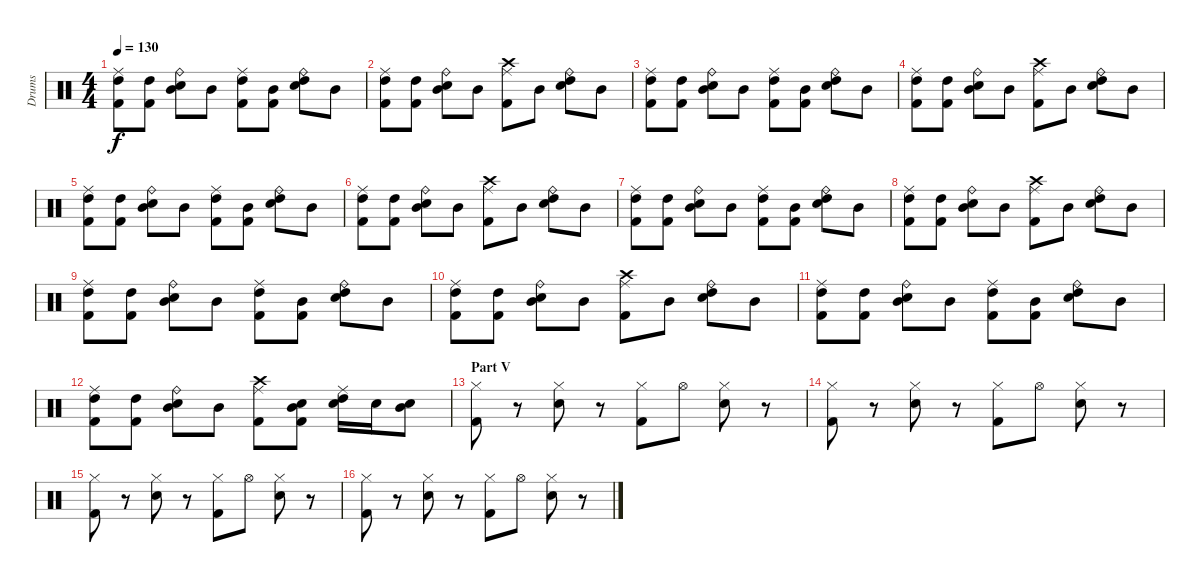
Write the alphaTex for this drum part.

\track ("Drums" "Drums") {instrument percussion}
\staff {score}
\articulation defaults
\ts (4 4)
\tempo 130
\clef neutral
\ks c
("Kick (hit) 2" "High Tom (hit)" "Ride (middle)").8{dy f} ("Kick (hit) 2" "High Tom (hit)").8 ("Snare (hit) 2" "Mid Tom (hit)" "Ride (bell)").8 "Mid Tom (hit)".8 ("Kick (hit) 2" "High Tom (hit)" "Ride (middle)").8 ("Kick (hit) 2" "Mid Tom (hit)").8 ("Snare (hit) 2" "High Tom (hit)" "Ride (bell)").8 "Mid Tom (hit)".8 |
("Kick (hit) 2" "High Tom (hit)" "Ride (middle)").8 ("Kick (hit) 2" "High Tom (hit)").8 ("Snare (hit) 2" "Mid Tom (hit)" "Ride (bell)").8 "Mid Tom (hit)".8 ("Kick (hit) 2" "Crash high (hit)" "Ride (middle)").8 "Mid Tom (hit)".8 ("Snare (hit) 2" "High Tom (hit)" "Ride (bell)").8 "Mid Tom (hit)".8 |
("Kick (hit) 2" "High Tom (hit)" "Ride (middle)").8 ("Kick (hit) 2" "High Tom (hit)").8 ("Snare (hit) 2" "Mid Tom (hit)" "Ride (bell)").8 "Mid Tom (hit)".8 ("Kick (hit) 2" "High Tom (hit)" "Ride (middle)").8 ("Kick (hit) 2" "Mid Tom (hit)").8 ("Snare (hit) 2" "High Tom (hit)" "Ride (bell)").8 "Mid Tom (hit)".8 |
("Kick (hit) 2" "High Tom (hit)" "Ride (middle)").8 ("Kick (hit) 2" "High Tom (hit)").8 ("Snare (hit) 2" "Mid Tom (hit)" "Ride (bell)").8 "Mid Tom (hit)".8 ("Kick (hit) 2" "Crash high (hit)" "Ride (middle)").8 "Mid Tom (hit)".8 ("Snare (hit) 2" "High Tom (hit)" "Ride (bell)").8 "Mid Tom (hit)".8 |
("Kick (hit) 2" "High Tom (hit)" "Ride (middle)").8 ("Kick (hit) 2" "High Tom (hit)").8 ("Snare (hit) 2" "Mid Tom (hit)" "Ride (bell)").8 "Mid Tom (hit)".8 ("Kick (hit) 2" "High Tom (hit)" "Ride (middle)").8 ("Kick (hit) 2" "Mid Tom (hit)").8 ("Snare (hit) 2" "High Tom (hit)" "Ride (bell)").8 "Mid Tom (hit)".8 |
("Kick (hit) 2" "High Tom (hit)" "Ride (middle)").8 ("Kick (hit) 2" "High Tom (hit)").8 ("Snare (hit) 2" "Mid Tom (hit)" "Ride (bell)").8 "Mid Tom (hit)".8 ("Kick (hit) 2" "Crash high (hit)" "Ride (middle)").8 "Mid Tom (hit)".8 ("Snare (hit) 2" "High Tom (hit)" "Ride (bell)").8 "Mid Tom (hit)".8 |
("Kick (hit) 2" "High Tom (hit)" "Ride (middle)").8 ("Kick (hit) 2" "High Tom (hit)").8 ("Snare (hit) 2" "Mid Tom (hit)" "Ride (bell)").8 "Mid Tom (hit)".8 ("Kick (hit) 2" "High Tom (hit)" "Ride (middle)").8 ("Kick (hit) 2" "Mid Tom (hit)").8 ("Snare (hit) 2" "High Tom (hit)" "Ride (bell)").8 "Mid Tom (hit)".8 |
("Kick (hit) 2" "High Tom (hit)" "Ride (middle)").8 ("Kick (hit) 2" "High Tom (hit)").8 ("Snare (hit) 2" "Mid Tom (hit)" "Ride (bell)").8 "Mid Tom (hit)".8 ("Kick (hit) 2" "Crash high (hit)" "Ride (middle)").8 "Mid Tom (hit)".8 ("Snare (hit) 2" "High Tom (hit)" "Ride (bell)").8 "Mid Tom (hit)".8 |
("Kick (hit) 2" "High Tom (hit)" "Ride (middle)").8 ("Kick (hit) 2" "High Tom (hit)").8 ("Snare (hit) 2" "Mid Tom (hit)" "Ride (bell)").8 "Mid Tom (hit)".8 ("Kick (hit) 2" "High Tom (hit)" "Ride (middle)").8 ("Kick (hit) 2" "Mid Tom (hit)").8 ("Snare (hit) 2" "High Tom (hit)" "Ride (bell)").8 "Mid Tom (hit)".8 |
("Kick (hit) 2" "High Tom (hit)" "Ride (middle)").8 ("Kick (hit) 2" "High Tom (hit)").8 ("Snare (hit) 2" "Mid Tom (hit)" "Ride (bell)").8 "Mid Tom (hit)".8 ("Kick (hit) 2" "Crash high (hit)" "Ride (middle)").8 "Mid Tom (hit)".8 ("Snare (hit) 2" "High Tom (hit)" "Ride (bell)").8 "Mid Tom (hit)".8 |
("Kick (hit) 2" "High Tom (hit)" "Ride (middle)").8 ("Kick (hit) 2" "High Tom (hit)").8 ("Snare (hit) 2" "Mid Tom (hit)" "Ride (bell)").8 "Mid Tom (hit)".8 ("Kick (hit) 2" "High Tom (hit)" "Ride (middle)").8 ("Kick (hit) 2" "Mid Tom (hit)").8 ("Snare (hit) 2" "High Tom (hit)" "Ride (bell)").8 "Mid Tom (hit)".8 |
("Kick (hit) 2" "High Tom (hit)" "Ride (middle)").8 ("Kick (hit) 2" "High Tom (hit)").8 ("Snare (hit) 2" "Mid Tom (hit)" "Ride (bell)").8 "Mid Tom (hit)".8 ("Kick (hit) 2" "Crash high (hit)" "Ride (middle)").8 ("Kick (hit) 2" "Electric Snare (hit)" "Mid Tom (hit)").8 ("Snare (hit) 2" "High Tom (hit)" "Ride (middle)").16 "Electric Snare (hit)".16 ("Electric Snare (hit)" "Mid Tom (hit)").8 |
\section ("" "Part V")
("Kick (hit) 2" "Hi-Hat (closed)").8 r.8 ("Snare (hit) 2" "Hi-Hat (closed)").8 r.8 ("Kick (hit) 2" "Hi-Hat (closed)").8 "Hi-Hat (open)".8 ("Snare (hit) 2" "Hi-Hat (closed)").8 r.8 |
("Kick (hit) 2" "Hi-Hat (closed)").8 r.8 ("Snare (hit) 2" "Hi-Hat (closed)").8 r.8 ("Kick (hit) 2" "Hi-Hat (closed)").8 "Hi-Hat (open)".8 ("Snare (hit) 2" "Hi-Hat (closed)").8 r.8 |
("Kick (hit) 2" "Hi-Hat (closed)").8 r.8 ("Snare (hit) 2" "Hi-Hat (closed)").8 r.8 ("Kick (hit) 2" "Hi-Hat (closed)").8 "Hi-Hat (open)".8 ("Snare (hit) 2" "Hi-Hat (closed)").8 r.8 |
("Kick (hit) 2" "Hi-Hat (closed)").8 r.8 ("Snare (hit) 2" "Hi-Hat (closed)").8 r.8 ("Kick (hit) 2" "Hi-Hat (closed)").8 "Hi-Hat (open)".8 ("Snare (hit) 2" "Hi-Hat (closed)").8 r.8
